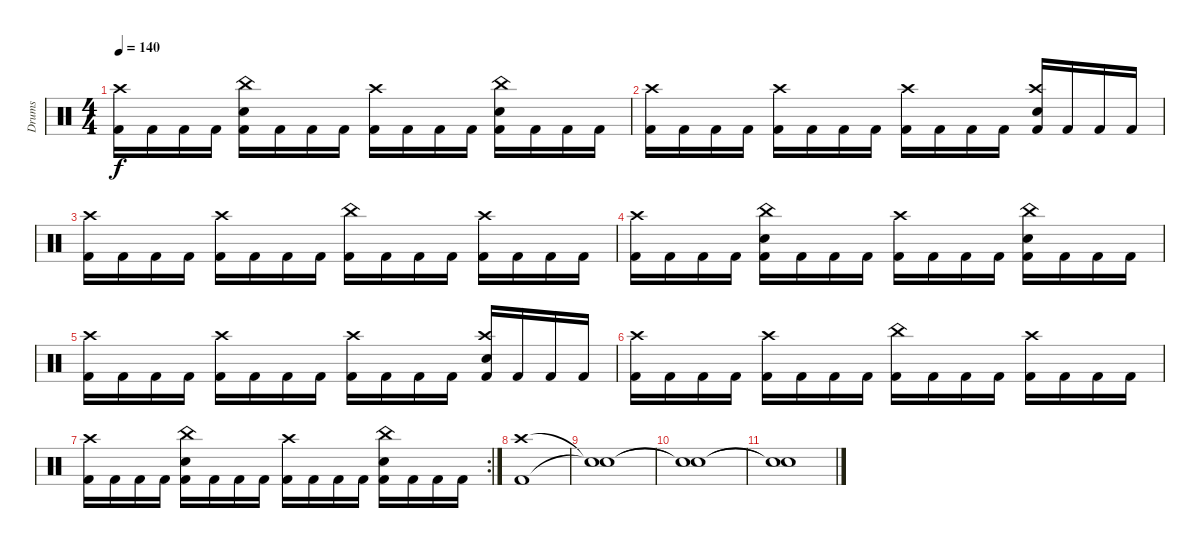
\track ("Drums" "Drums") {instrument percussion}
\staff {score}
\articulation defaults
\ts (4 4)
\tempo 140
\clef neutral
\ks c
("Kick (hit) 2" "Crash high (hit)").16{dy f} "Kick (hit) 2".16 "Kick (hit) 2".16 "Kick (hit) 2".16 ("Kick (hit) 2" "Electric Snare (hit)" "China (hit)").16 "Kick (hit) 2".16 "Kick (hit) 2".16 "Kick (hit) 2".16 ("Kick (hit) 2" "Crash high (hit)").16 "Kick (hit) 2".16 "Kick (hit) 2".16 "Kick (hit) 2".16 ("Kick (hit) 2" "Electric Snare (hit)" "China (hit)").16 "Kick (hit) 2".16 "Kick (hit) 2".16 "Kick (hit) 2".16 |
("Kick (hit) 2" "Crash high (hit)").16 "Kick (hit) 2".16 "Kick (hit) 2".16 "Kick (hit) 2".16 ("Kick (hit) 2" "Crash high (hit)").16 "Kick (hit) 2".16 "Kick (hit) 2".16 "Kick (hit) 2".16 ("Kick (hit) 2" "Crash high (hit)").16 "Kick (hit) 2".16 "Kick (hit) 2".16 "Kick (hit) 2".16 ("Kick (hit) 2" "Crash high (hit)" "Electric Snare (hit)").16 "Kick (hit) 2".16 "Kick (hit) 2".16 "Kick (hit) 2".16 |
("Kick (hit) 2" "Crash high (hit)").16 "Kick (hit) 2".16 "Kick (hit) 2".16 "Kick (hit) 2".16 ("Kick (hit) 2" "Crash high (hit)").16 "Kick (hit) 2".16 "Kick (hit) 2".16 "Kick (hit) 2".16 ("Kick (hit) 2" "China (hit)").16 "Kick (hit) 2".16 "Kick (hit) 2".16 "Kick (hit) 2".16 ("Kick (hit) 2" "Crash high (hit)").16 "Kick (hit) 2".16 "Kick (hit) 2".16 "Kick (hit) 2".16 |
("Kick (hit) 2" "Crash high (hit)").16 "Kick (hit) 2".16 "Kick (hit) 2".16 "Kick (hit) 2".16 ("Kick (hit) 2" "Electric Snare (hit)" "China (hit)").16 "Kick (hit) 2".16 "Kick (hit) 2".16 "Kick (hit) 2".16 ("Kick (hit) 2" "Crash high (hit)").16 "Kick (hit) 2".16 "Kick (hit) 2".16 "Kick (hit) 2".16 ("Kick (hit) 2" "Electric Snare (hit)" "China (hit)").16 "Kick (hit) 2".16 "Kick (hit) 2".16 "Kick (hit) 2".16 |
("Kick (hit) 2" "Crash high (hit)").16 "Kick (hit) 2".16 "Kick (hit) 2".16 "Kick (hit) 2".16 ("Kick (hit) 2" "Crash high (hit)").16 "Kick (hit) 2".16 "Kick (hit) 2".16 "Kick (hit) 2".16 ("Kick (hit) 2" "Crash high (hit)").16 "Kick (hit) 2".16 "Kick (hit) 2".16 "Kick (hit) 2".16 ("Kick (hit) 2" "Crash high (hit)" "Electric Snare (hit)").16 "Kick (hit) 2".16 "Kick (hit) 2".16 "Kick (hit) 2".16 |
("Kick (hit) 2" "Crash high (hit)").16 "Kick (hit) 2".16 "Kick (hit) 2".16 "Kick (hit) 2".16 ("Kick (hit) 2" "Crash high (hit)").16 "Kick (hit) 2".16 "Kick (hit) 2".16 "Kick (hit) 2".16 ("Kick (hit) 2" "China (hit)").16 "Kick (hit) 2".16 "Kick (hit) 2".16 "Kick (hit) 2".16 ("Kick (hit) 2" "Crash high (hit)").16 "Kick (hit) 2".16 "Kick (hit) 2".16 "Kick (hit) 2".16 |
\rc 2
("Kick (hit) 2" "Crash high (hit)").16 "Kick (hit) 2".16 "Kick (hit) 2".16 "Kick (hit) 2".16 ("Kick (hit) 2" "Electric Snare (hit)" "China (hit)").16 "Kick (hit) 2".16 "Kick (hit) 2".16 "Kick (hit) 2".16 ("Kick (hit) 2" "Crash high (hit)").16 "Kick (hit) 2".16 "Kick (hit) 2".16 "Kick (hit) 2".16 ("Kick (hit) 2" "Electric Snare (hit)" "China (hit)").16 "Kick (hit) 2".16 "Kick (hit) 2".16 "Kick (hit) 2".16 |
("Kick (hit) 2" "Crash high (hit)").1 |
("Snare (hit)"{t} "Snare (hit)"{t}).1 |
("Snare (hit)"{t} "Snare (hit)"{t}).1 |
("Snare (hit)"{t} "Snare (hit)"{t}).1
